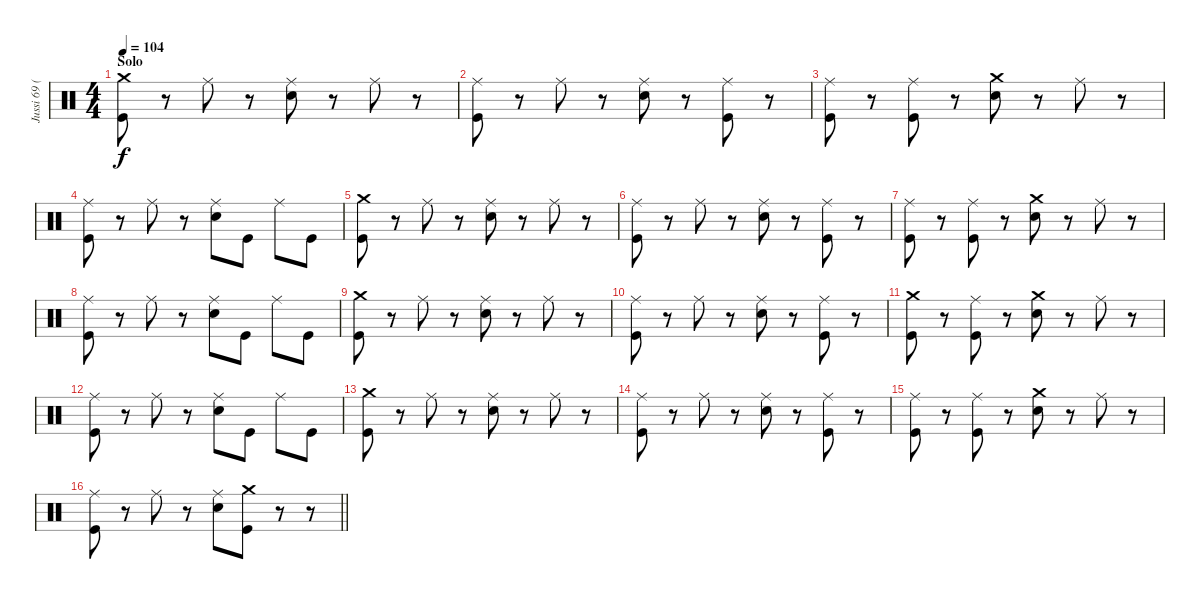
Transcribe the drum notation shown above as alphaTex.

\track ("Jussi 69 (Batería)" "Jussi 69 (") {instrument percussion}
\staff {score}
\articulation defaults
\ts (4 4)
\section ("" "Solo")
\tempo 104
\clef neutral
\ks c
("Crash medium (hit)" "Kick (hit)").8{dy f} r.8 "Ride (middle)".8 r.8 ("Ride (middle)" "Electric Snare (hit)").8 r.8 "Ride (middle)".8 r.8 |
("Ride (middle)" "Kick (hit)").8 r.8 "Ride (middle)".8 r.8 ("Ride (middle)" "Electric Snare (hit)").8 r.8 ("Ride (middle)" "Kick (hit)").8 r.8 |
("Ride (middle)" "Kick (hit)").8 r.8 ("Ride (middle)" "Kick (hit)").8 r.8 ("Crash medium (hit)" "Electric Snare (hit)").8 r.8 "Ride (middle)".8 r.8 |
("Ride (middle)" "Kick (hit)").8 r.8 "Ride (middle)".8 r.8 ("Ride (middle)" "Electric Snare (hit)").8 "Kick (hit)".8 "Ride (middle)".8 "Kick (hit)".8 |
("Crash medium (hit)" "Kick (hit)").8 r.8 "Ride (middle)".8 r.8 ("Ride (middle)" "Electric Snare (hit)").8 r.8 "Ride (middle)".8 r.8 |
("Ride (middle)" "Kick (hit)").8 r.8 "Ride (middle)".8 r.8 ("Ride (middle)" "Electric Snare (hit)").8 r.8 ("Ride (middle)" "Kick (hit)").8 r.8 |
("Ride (middle)" "Kick (hit)").8 r.8 ("Ride (middle)" "Kick (hit)").8 r.8 ("Crash medium (hit)" "Electric Snare (hit)").8 r.8 "Ride (middle)".8 r.8 |
("Ride (middle)" "Kick (hit)").8 r.8 "Ride (middle)".8 r.8 ("Ride (middle)" "Electric Snare (hit)").8 "Kick (hit)".8 "Ride (middle)".8 "Kick (hit)".8 |
("Crash medium (hit)" "Kick (hit)").8 r.8 "Ride (middle)".8 r.8 ("Ride (middle)" "Electric Snare (hit)").8 r.8 "Ride (middle)".8 r.8 |
("Ride (middle)" "Kick (hit)").8 r.8 "Ride (middle)".8 r.8 ("Ride (middle)" "Electric Snare (hit)").8 r.8 ("Ride (middle)" "Kick (hit)").8 r.8 |
("Crash medium (hit)" "Kick (hit)").8 r.8 ("Ride (middle)" "Kick (hit)").8 r.8 ("Crash medium (hit)" "Electric Snare (hit)").8 r.8 "Ride (middle)".8 r.8 |
("Ride (middle)" "Kick (hit)").8 r.8 "Ride (middle)".8 r.8 ("Ride (middle)" "Electric Snare (hit)").8 "Kick (hit)".8 "Ride (middle)".8 "Kick (hit)".8 |
("Crash medium (hit)" "Kick (hit)").8 r.8 "Ride (middle)".8 r.8 ("Ride (middle)" "Electric Snare (hit)").8 r.8 "Ride (middle)".8 r.8 |
("Ride (middle)" "Kick (hit)").8 r.8 "Ride (middle)".8 r.8 ("Ride (middle)" "Electric Snare (hit)").8 r.8 ("Ride (middle)" "Kick (hit)").8 r.8 |
("Ride (middle)" "Kick (hit)").8 r.8 ("Ride (middle)" "Kick (hit)").8 r.8 ("Crash medium (hit)" "Electric Snare (hit)").8 r.8 "Ride (middle)".8 r.8 |
\barLineRight lightlight
("Ride (middle)" "Kick (hit)").8 r.8 "Ride (middle)".8 r.8 ("Ride (middle)" "Electric Snare (hit)").8 ("Crash medium (hit)" "Kick (hit)").8 r.8 r.8
